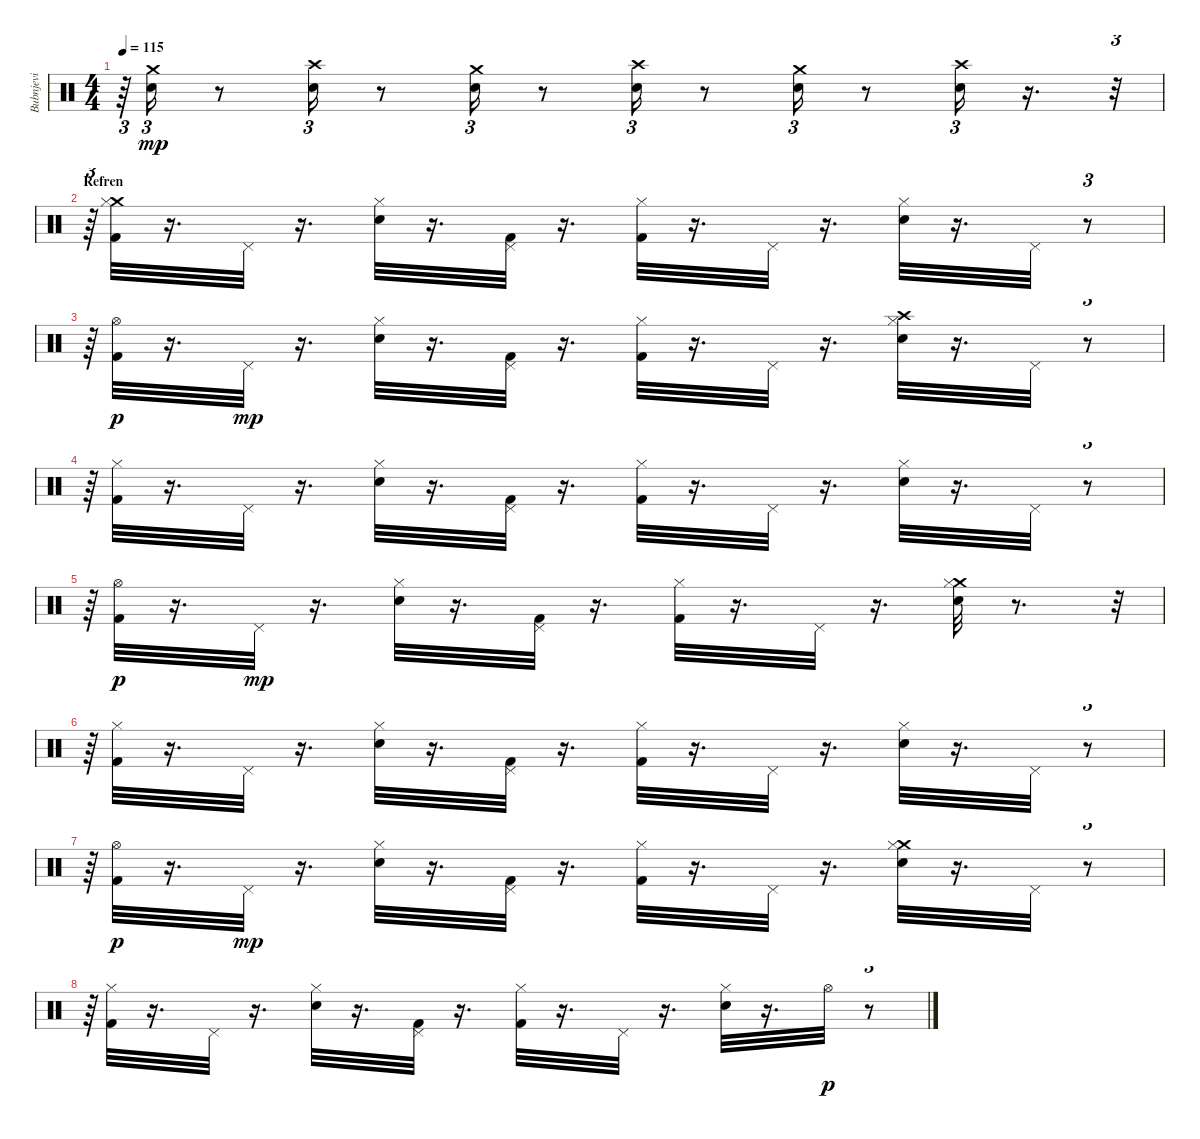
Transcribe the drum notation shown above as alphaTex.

\track ("Bubnjevi" "Bubnjevi") {instrument percussion}
\staff {score}
\articulation defaults
\ts (4 4)
\tempo 115
\clef neutral
\ks c
r.64{tu (3 2) dy p} ("Electric Snare (hit)" "Crash medium (hit)").16{tu (3 2) dy mp} r.8 ("Electric Snare (hit)" "Crash high (hit)").16{tu (3 2)} r.8 ("Electric Snare (hit)" "Crash medium (hit)").16{tu (3 2)} r.8 ("Electric Snare (hit)" "Crash high (hit)").16{tu (3 2)} r.8 ("Electric Snare (hit)" "Crash medium (hit)").16{tu (3 2)} r.8 ("Electric Snare (hit)" "Crash high (hit)").16{tu (3 2)} r.16{d} r.32{tu (3 2)} |
\section ("" "Refren")
r.64{tu (3 2)} ("Crash medium (hit)" "Kick (hit) 2" "Hi-Hat (closed)").32 r.16{d} "Pedal Hi-Hat (hit)".32 r.16{d} ("Electric Snare (hit)" "Hi-Hat (closed)").32 r.16{d} ("Kick (hit) 2" "Pedal Hi-Hat (hit)").32 r.16{d} ("Kick (hit) 2" "Hi-Hat (closed)").32 r.16{d} "Pedal Hi-Hat (hit)".32 r.16{d} ("Electric Snare (hit)" "Hi-Hat (closed)").32 r.16{d} "Pedal Hi-Hat (hit)".32 r.8{tu (3 2)} |
r.64{tu (3 2)} ("Hi-Hat (open)" "Kick (hit) 2").32{dy p} r.16{d} "Pedal Hi-Hat (hit)".32{dy mp} r.16{d} ("Hi-Hat (closed)" "Electric Snare (hit)").32 r.16{d} ("Pedal Hi-Hat (hit)" "Kick (hit) 2").32 r.16{d} ("Hi-Hat (closed)" "Kick (hit) 2").32 r.16{d} "Pedal Hi-Hat (hit)".32 r.16{d} ("Crash high (hit)" "Hi-Hat (closed)" "Electric Snare (hit)").32 r.16{d} "Pedal Hi-Hat (hit)".32 r.8{tu (3 2)} |
r.64{tu (3 2)} ("Hi-Hat (closed)" "Kick (hit) 2").32 r.16{d} "Pedal Hi-Hat (hit)".32 r.16{d} ("Hi-Hat (closed)" "Electric Snare (hit)").32 r.16{d} ("Pedal Hi-Hat (hit)" "Kick (hit) 2").32 r.16{d} ("Hi-Hat (closed)" "Kick (hit) 2").32 r.16{d} "Pedal Hi-Hat (hit)".32 r.16{d} ("Hi-Hat (closed)" "Electric Snare (hit)").32 r.16{d} "Pedal Hi-Hat (hit)".32 r.8{tu (3 2)} |
r.64{tu (3 2)} ("Hi-Hat (open)" "Kick (hit) 2").32{dy p} r.16{d} "Pedal Hi-Hat (hit)".32{dy mp} r.16{d} ("Electric Snare (hit)" "Hi-Hat (closed)").32 r.16{d} ("Kick (hit) 2" "Pedal Hi-Hat (hit)").32 r.16{d} ("Kick (hit) 2" "Hi-Hat (closed)").32 r.16{d} "Pedal Hi-Hat (hit)".32 r.16{d} ("Crash medium (hit)" "Electric Snare (hit)" "Hi-Hat (closed)").32 r.8{d} r.32{tu (3 2)} |
r.64{tu (3 2)} ("Hi-Hat (closed)" "Kick (hit) 2").32 r.16{d} "Pedal Hi-Hat (hit)".32 r.16{d} ("Hi-Hat (closed)" "Electric Snare (hit)").32 r.16{d} ("Pedal Hi-Hat (hit)" "Kick (hit) 2").32 r.16{d} ("Hi-Hat (closed)" "Kick (hit) 2").32 r.16{d} "Pedal Hi-Hat (hit)".32 r.16{d} ("Hi-Hat (closed)" "Electric Snare (hit)").32 r.16{d} "Pedal Hi-Hat (hit)".32 r.8{tu (3 2)} |
r.64{tu (3 2)} ("Hi-Hat (open)" "Kick (hit) 2").32{dy p} r.16{d} "Pedal Hi-Hat (hit)".32{dy mp} r.16{d} ("Electric Snare (hit)" "Hi-Hat (closed)").32 r.16{d} ("Kick (hit) 2" "Pedal Hi-Hat (hit)").32 r.16{d} ("Kick (hit) 2" "Hi-Hat (closed)").32 r.16{d} "Pedal Hi-Hat (hit)".32 r.16{d} ("Crash medium (hit)" "Electric Snare (hit)" "Hi-Hat (closed)").32 r.16{d} "Pedal Hi-Hat (hit)".32 r.8{tu (3 2)} |
r.64{tu (3 2)} ("Kick (hit) 2" "Hi-Hat (closed)").32 r.16{d} "Pedal Hi-Hat (hit)".32 r.16{d} ("Electric Snare (hit)" "Hi-Hat (closed)").32 r.16{d} ("Kick (hit) 2" "Pedal Hi-Hat (hit)").32 r.16{d} ("Kick (hit) 2" "Hi-Hat (closed)").32 r.16{d} "Pedal Hi-Hat (hit)".32 r.16{d} ("Electric Snare (hit)" "Hi-Hat (closed)").32 r.16{d} "Hi-Hat (open)".32{dy p} r.8{tu (3 2)}
